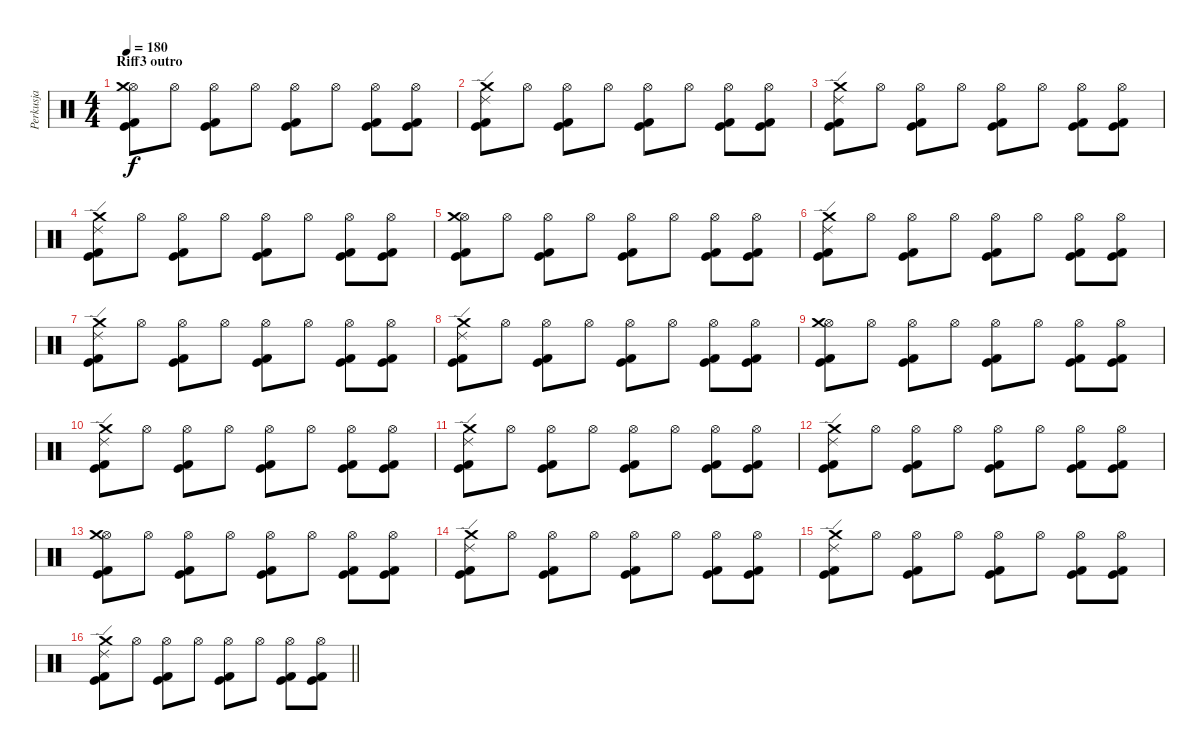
\track ("Perkusja" "Perkusja") {instrument percussion}
\staff {score}
\articulation defaults
\ts (4 4)
\section ("" "Riff3 outro")
\tempo 180
\clef neutral
\ks c
("Hi-Hat (open)" "Crash medium (hit)" "Kick (hit)" "Kick (hit) 2").8{dy f} "Hi-Hat (open)".8 ("Hi-Hat (open)" "Kick (hit)" "Kick (hit) 2").8 "Hi-Hat (open)".8 ("Hi-Hat (open)" "Kick (hit)" "Kick (hit) 2").8 "Hi-Hat (open)".8 ("Hi-Hat (open)" "Kick (hit)" "Kick (hit) 2").8 ("Hi-Hat (open)" "Kick (hit)" "Kick (hit) 2").8 |
("Ride (edge) 2" "Crash medium (hit)" "Kick (hit)" "Kick (hit) 2").8 "Hi-Hat (open)".8 ("Hi-Hat (open)" "Kick (hit)" "Kick (hit) 2").8 "Hi-Hat (open)".8 ("Hi-Hat (open)" "Kick (hit)" "Kick (hit) 2").8 "Hi-Hat (open)".8 ("Hi-Hat (open)" "Kick (hit)" "Kick (hit) 2").8 ("Hi-Hat (open)" "Kick (hit)" "Kick (hit) 2").8 |
("Ride (edge) 2" "Crash medium (hit)" "Kick (hit)" "Kick (hit) 2").8 "Hi-Hat (open)".8 ("Hi-Hat (open)" "Kick (hit)" "Kick (hit) 2").8 "Hi-Hat (open)".8 ("Hi-Hat (open)" "Kick (hit)" "Kick (hit) 2").8 "Hi-Hat (open)".8 ("Hi-Hat (open)" "Kick (hit)" "Kick (hit) 2").8 ("Hi-Hat (open)" "Kick (hit)" "Kick (hit) 2").8 |
("Ride (edge) 2" "Crash medium (hit)" "Kick (hit)" "Kick (hit) 2").8 "Hi-Hat (open)".8 ("Hi-Hat (open)" "Kick (hit)" "Kick (hit) 2").8 "Hi-Hat (open)".8 ("Hi-Hat (open)" "Kick (hit)" "Kick (hit) 2").8 "Hi-Hat (open)".8 ("Hi-Hat (open)" "Kick (hit)" "Kick (hit) 2").8 ("Hi-Hat (open)" "Kick (hit)" "Kick (hit) 2").8 |
("Hi-Hat (open)" "Crash medium (hit)" "Kick (hit)" "Kick (hit) 2").8 "Hi-Hat (open)".8 ("Hi-Hat (open)" "Kick (hit)" "Kick (hit) 2").8 "Hi-Hat (open)".8 ("Hi-Hat (open)" "Kick (hit)" "Kick (hit) 2").8 "Hi-Hat (open)".8 ("Hi-Hat (open)" "Kick (hit)" "Kick (hit) 2").8 ("Hi-Hat (open)" "Kick (hit)" "Kick (hit) 2").8 |
("Ride (edge) 2" "Crash medium (hit)" "Kick (hit)" "Kick (hit) 2").8 "Hi-Hat (open)".8 ("Hi-Hat (open)" "Kick (hit)" "Kick (hit) 2").8 "Hi-Hat (open)".8 ("Hi-Hat (open)" "Kick (hit)" "Kick (hit) 2").8 "Hi-Hat (open)".8 ("Hi-Hat (open)" "Kick (hit)" "Kick (hit) 2").8 ("Hi-Hat (open)" "Kick (hit)" "Kick (hit) 2").8 |
("Ride (edge) 2" "Crash medium (hit)" "Kick (hit)" "Kick (hit) 2").8 "Hi-Hat (open)".8 ("Hi-Hat (open)" "Kick (hit)" "Kick (hit) 2").8 "Hi-Hat (open)".8 ("Hi-Hat (open)" "Kick (hit)" "Kick (hit) 2").8 "Hi-Hat (open)".8 ("Hi-Hat (open)" "Kick (hit)" "Kick (hit) 2").8 ("Hi-Hat (open)" "Kick (hit)" "Kick (hit) 2").8 |
("Ride (edge) 2" "Crash medium (hit)" "Kick (hit)" "Kick (hit) 2").8 "Hi-Hat (open)".8 ("Hi-Hat (open)" "Kick (hit)" "Kick (hit) 2").8 "Hi-Hat (open)".8 ("Hi-Hat (open)" "Kick (hit)" "Kick (hit) 2").8 "Hi-Hat (open)".8 ("Hi-Hat (open)" "Kick (hit)" "Kick (hit) 2").8 ("Hi-Hat (open)" "Kick (hit)" "Kick (hit) 2").8 |
("Hi-Hat (open)" "Crash medium (hit)" "Kick (hit)" "Kick (hit) 2").8 "Hi-Hat (open)".8 ("Hi-Hat (open)" "Kick (hit)" "Kick (hit) 2").8 "Hi-Hat (open)".8 ("Hi-Hat (open)" "Kick (hit)" "Kick (hit) 2").8 "Hi-Hat (open)".8 ("Hi-Hat (open)" "Kick (hit)" "Kick (hit) 2").8 ("Hi-Hat (open)" "Kick (hit)" "Kick (hit) 2").8 |
("Ride (edge) 2" "Crash medium (hit)" "Kick (hit)" "Kick (hit) 2").8 "Hi-Hat (open)".8 ("Hi-Hat (open)" "Kick (hit)" "Kick (hit) 2").8 "Hi-Hat (open)".8 ("Hi-Hat (open)" "Kick (hit)" "Kick (hit) 2").8 "Hi-Hat (open)".8 ("Hi-Hat (open)" "Kick (hit)" "Kick (hit) 2").8 ("Hi-Hat (open)" "Kick (hit)" "Kick (hit) 2").8 |
("Ride (edge) 2" "Crash medium (hit)" "Kick (hit)" "Kick (hit) 2").8 "Hi-Hat (open)".8 ("Hi-Hat (open)" "Kick (hit)" "Kick (hit) 2").8 "Hi-Hat (open)".8 ("Hi-Hat (open)" "Kick (hit)" "Kick (hit) 2").8 "Hi-Hat (open)".8 ("Hi-Hat (open)" "Kick (hit)" "Kick (hit) 2").8 ("Hi-Hat (open)" "Kick (hit)" "Kick (hit) 2").8 |
("Ride (edge) 2" "Crash medium (hit)" "Kick (hit)" "Kick (hit) 2").8 "Hi-Hat (open)".8 ("Hi-Hat (open)" "Kick (hit)" "Kick (hit) 2").8 "Hi-Hat (open)".8 ("Hi-Hat (open)" "Kick (hit)" "Kick (hit) 2").8 "Hi-Hat (open)".8 ("Hi-Hat (open)" "Kick (hit)" "Kick (hit) 2").8 ("Hi-Hat (open)" "Kick (hit)" "Kick (hit) 2").8 |
("Hi-Hat (open)" "Crash medium (hit)" "Kick (hit)" "Kick (hit) 2").8 "Hi-Hat (open)".8 ("Hi-Hat (open)" "Kick (hit)" "Kick (hit) 2").8 "Hi-Hat (open)".8 ("Hi-Hat (open)" "Kick (hit)" "Kick (hit) 2").8 "Hi-Hat (open)".8 ("Hi-Hat (open)" "Kick (hit)" "Kick (hit) 2").8 ("Hi-Hat (open)" "Kick (hit)" "Kick (hit) 2").8 |
("Ride (edge) 2" "Crash medium (hit)" "Kick (hit)" "Kick (hit) 2").8 "Hi-Hat (open)".8 ("Hi-Hat (open)" "Kick (hit)" "Kick (hit) 2").8 "Hi-Hat (open)".8 ("Hi-Hat (open)" "Kick (hit)" "Kick (hit) 2").8 "Hi-Hat (open)".8 ("Hi-Hat (open)" "Kick (hit)" "Kick (hit) 2").8 ("Hi-Hat (open)" "Kick (hit)" "Kick (hit) 2").8 |
("Ride (edge) 2" "Crash medium (hit)" "Kick (hit)" "Kick (hit) 2").8 "Hi-Hat (open)".8 ("Hi-Hat (open)" "Kick (hit)" "Kick (hit) 2").8 "Hi-Hat (open)".8 ("Hi-Hat (open)" "Kick (hit)" "Kick (hit) 2").8 "Hi-Hat (open)".8 ("Hi-Hat (open)" "Kick (hit)" "Kick (hit) 2").8 ("Hi-Hat (open)" "Kick (hit)" "Kick (hit) 2").8 |
\barLineRight lightlight
("Ride (edge) 2" "Crash medium (hit)" "Kick (hit)" "Kick (hit) 2").8 "Hi-Hat (open)".8 ("Hi-Hat (open)" "Kick (hit)" "Kick (hit) 2").8 "Hi-Hat (open)".8 ("Hi-Hat (open)" "Kick (hit)" "Kick (hit) 2").8 "Hi-Hat (open)".8 ("Hi-Hat (open)" "Kick (hit)" "Kick (hit) 2").8 ("Hi-Hat (open)" "Kick (hit)" "Kick (hit) 2").8
